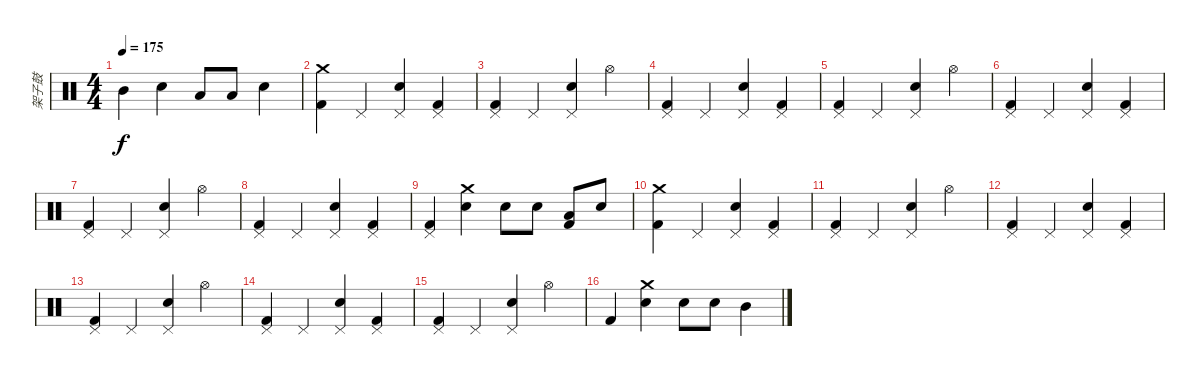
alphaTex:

\track ("架子鼓" "架子鼓") {instrument percussion}
\staff {score}
\articulation defaults
\ts (4 4)
\tempo 175
\clef neutral
\ks c "Mid Tom (hit)".4{dy f} "Electric Snare (hit)".4 "Low Tom (hit)".8 "Low Tom (hit)".8 "Electric Snare (hit)".4
|
("Crash medium (hit)" "Kick (hit) 2").4 "Pedal Hi-Hat (hit)".4 ("Pedal Hi-Hat (hit)" "Electric Snare (hit)").4 ("Pedal Hi-Hat (hit)" "Kick (hit) 2").4 |
("Pedal Hi-Hat (hit)" "Kick (hit) 2").4 "Pedal Hi-Hat (hit)".4 ("Pedal Hi-Hat (hit)" "Electric Snare (hit)").4 "Hi-Hat (open)".4 |
("Pedal Hi-Hat (hit)" "Kick (hit) 2").4 "Pedal Hi-Hat (hit)".4 ("Pedal Hi-Hat (hit)" "Electric Snare (hit)").4 ("Pedal Hi-Hat (hit)" "Kick (hit) 2").4 |
("Pedal Hi-Hat (hit)" "Kick (hit) 2").4 "Pedal Hi-Hat (hit)".4 ("Pedal Hi-Hat (hit)" "Electric Snare (hit)").4 "Hi-Hat (open)".4 |
("Pedal Hi-Hat (hit)" "Kick (hit) 2").4 "Pedal Hi-Hat (hit)".4 ("Pedal Hi-Hat (hit)" "Electric Snare (hit)").4 ("Pedal Hi-Hat (hit)" "Kick (hit) 2").4 |
("Pedal Hi-Hat (hit)" "Kick (hit) 2").4 "Pedal Hi-Hat (hit)".4 ("Pedal Hi-Hat (hit)" "Electric Snare (hit)").4 "Hi-Hat (open)".4 |
("Pedal Hi-Hat (hit)" "Kick (hit) 2").4 "Pedal Hi-Hat (hit)".4 ("Pedal Hi-Hat (hit)" "Electric Snare (hit)").4 ("Pedal Hi-Hat (hit)" "Kick (hit) 2").4 |
("Pedal Hi-Hat (hit)" "Kick (hit) 2").4 ("Crash medium (hit)" "Electric Snare (hit)").4 "Electric Snare (hit)".8 "Electric Snare (hit)".8 ("Kick (hit) 2" "Low Tom (hit)").8 "Electric Snare (hit)".8 |
("Crash medium (hit)" "Kick (hit) 2").4 "Pedal Hi-Hat (hit)".4 ("Pedal Hi-Hat (hit)" "Electric Snare (hit)").4 ("Pedal Hi-Hat (hit)" "Kick (hit) 2").4 |
("Pedal Hi-Hat (hit)" "Kick (hit) 2").4 "Pedal Hi-Hat (hit)".4 ("Pedal Hi-Hat (hit)" "Electric Snare (hit)").4 "Hi-Hat (open)".4 |
("Pedal Hi-Hat (hit)" "Kick (hit) 2").4 "Pedal Hi-Hat (hit)".4 ("Pedal Hi-Hat (hit)" "Electric Snare (hit)").4 ("Pedal Hi-Hat (hit)" "Kick (hit) 2").4 |
("Pedal Hi-Hat (hit)" "Kick (hit) 2").4 "Pedal Hi-Hat (hit)".4 ("Pedal Hi-Hat (hit)" "Electric Snare (hit)").4 "Hi-Hat (open)".4 |
("Pedal Hi-Hat (hit)" "Kick (hit) 2").4 "Pedal Hi-Hat (hit)".4 ("Pedal Hi-Hat (hit)" "Electric Snare (hit)").4 ("Pedal Hi-Hat (hit)" "Kick (hit) 2").4 |
("Pedal Hi-Hat (hit)" "Kick (hit) 2").4 "Pedal Hi-Hat (hit)".4 ("Pedal Hi-Hat (hit)" "Electric Snare (hit)").4 "Hi-Hat (open)".4 |
"Kick (hit) 2".4 ("Crash medium (hit)" "Electric Snare (hit)").4 "Electric Snare (hit)".8 "Electric Snare (hit)".8 "Mid Tom (hit)".4
